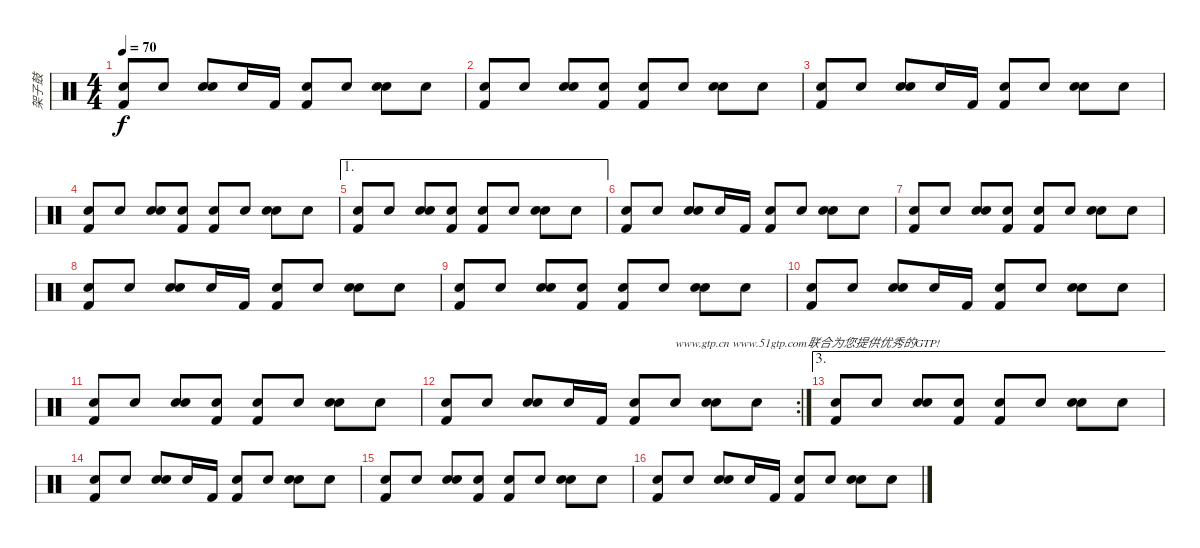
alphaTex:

\track ("架子鼓" "架子鼓") {instrument percussion}
\staff {score}
\articulation defaults
\ts (4 4)
\tempo 70
\clef neutral
\ks c
("Snare (hit)" "Kick (hit) 2").8{dy f} "Snare (hit)".8 ("Snare (hit)" "Snare (hit) 2").8 "Snare (hit)".16 "Kick (hit) 2".16 ("Snare (hit)" "Kick (hit) 2").8 "Snare (hit)".8 ("Snare (hit)" "Snare (hit) 2").8 "Snare (hit)".8 |
("Snare (hit)" "Kick (hit) 2").8 "Snare (hit)".8 ("Snare (hit)" "Snare (hit) 2").8 ("Snare (hit)" "Kick (hit) 2").8 ("Snare (hit)" "Kick (hit) 2").8 "Snare (hit)".8 ("Snare (hit)" "Snare (hit) 2").8 "Snare (hit)".8 |
("Snare (hit)" "Kick (hit) 2").8 "Snare (hit)".8 ("Snare (hit)" "Snare (hit) 2").8 "Snare (hit)".16 "Kick (hit) 2".16 ("Snare (hit)" "Kick (hit) 2").8 "Snare (hit)".8 ("Snare (hit)" "Snare (hit) 2").8 "Snare (hit)".8 |
("Snare (hit)" "Kick (hit) 2").8 "Snare (hit)".8 ("Snare (hit)" "Snare (hit) 2").8 ("Snare (hit)" "Kick (hit) 2").8 ("Snare (hit)" "Kick (hit) 2").8 "Snare (hit)".8 ("Snare (hit)" "Snare (hit) 2").8 "Snare (hit)".8 |
\ae 1
("Snare (hit)" "Kick (hit) 2").8 "Snare (hit)".8 ("Snare (hit)" "Snare (hit) 2").8 ("Snare (hit)" "Kick (hit) 2").8 ("Snare (hit)" "Kick (hit) 2").8 "Snare (hit)".8 ("Snare (hit)" "Snare (hit) 2").8 "Snare (hit)".8 |
("Snare (hit)" "Kick (hit) 2").8 "Snare (hit)".8 ("Snare (hit)" "Snare (hit) 2").8 "Snare (hit)".16 "Kick (hit) 2".16 ("Snare (hit)" "Kick (hit) 2").8 "Snare (hit)".8 ("Snare (hit)" "Snare (hit) 2").8 "Snare (hit)".8 |
("Snare (hit)" "Kick (hit) 2").8 "Snare (hit)".8 ("Snare (hit)" "Snare (hit) 2").8 ("Snare (hit)" "Kick (hit) 2").8 ("Snare (hit)" "Kick (hit) 2").8 "Snare (hit)".8 ("Snare (hit)" "Snare (hit) 2").8 "Snare (hit)".8 |
("Snare (hit)" "Kick (hit) 2").8 "Snare (hit)".8 ("Snare (hit)" "Snare (hit) 2").8 "Snare (hit)".16 "Kick (hit) 2".16 ("Snare (hit)" "Kick (hit) 2").8 "Snare (hit)".8 ("Snare (hit)" "Snare (hit) 2").8 "Snare (hit)".8 |
("Snare (hit)" "Kick (hit) 2").8 "Snare (hit)".8 ("Snare (hit)" "Snare (hit) 2").8 ("Snare (hit)" "Kick (hit) 2").8 ("Snare (hit)" "Kick (hit) 2").8 "Snare (hit)".8 ("Snare (hit)" "Snare (hit) 2").8 "Snare (hit)".8 |
("Snare (hit)" "Kick (hit) 2").8 "Snare (hit)".8 ("Snare (hit)" "Snare (hit) 2").8 "Snare (hit)".16 "Kick (hit) 2".16 ("Snare (hit)" "Kick (hit) 2").8 "Snare (hit)".8 ("Snare (hit)" "Snare (hit) 2").8 "Snare (hit)".8 |
("Snare (hit)" "Kick (hit) 2").8 "Snare (hit)".8 ("Snare (hit)" "Snare (hit) 2").8 ("Snare (hit)" "Kick (hit) 2").8 ("Snare (hit)" "Kick (hit) 2").8 "Snare (hit)".8 ("Snare (hit)" "Snare (hit) 2").8 "Snare (hit)".8 |
\rc 2
("Snare (hit)" "Kick (hit) 2").8 "Snare (hit)".8 ("Snare (hit)" "Snare (hit) 2").8 "Snare (hit)".16 "Kick (hit) 2".16 ("Snare (hit)" "Kick (hit) 2").8 "Snare (hit)".8{txt "www.gtp.cn www.51gtp.com联合为您提供优秀的GTP!"} ("Snare (hit)" "Snare (hit) 2").8 "Snare (hit)".8 |
\ae 3
("Snare (hit)" "Kick (hit) 2").8 "Snare (hit)".8 ("Snare (hit)" "Snare (hit) 2").8 ("Snare (hit)" "Kick (hit) 2").8 ("Snare (hit)" "Kick (hit) 2").8 "Snare (hit)".8 ("Snare (hit)" "Snare (hit) 2").8 "Snare (hit)".8 |
("Snare (hit)" "Kick (hit) 2").8 "Snare (hit)".8 ("Snare (hit)" "Snare (hit) 2").8 "Snare (hit)".16 "Kick (hit) 2".16 ("Snare (hit)" "Kick (hit) 2").8 "Snare (hit)".8 ("Snare (hit)" "Snare (hit) 2").8 "Snare (hit)".8 |
("Snare (hit)" "Kick (hit) 2").8 "Snare (hit)".8 ("Snare (hit)" "Snare (hit) 2").8 ("Snare (hit)" "Kick (hit) 2").8 ("Snare (hit)" "Kick (hit) 2").8 "Snare (hit)".8 ("Snare (hit)" "Snare (hit) 2").8 "Snare (hit)".8 |
("Snare (hit)" "Kick (hit) 2").8 "Snare (hit)".8 ("Snare (hit)" "Snare (hit) 2").8 "Snare (hit)".16 "Kick (hit) 2".16 ("Snare (hit)" "Kick (hit) 2").8 "Snare (hit)".8 ("Snare (hit)" "Snare (hit) 2").8 "Snare (hit)".8
